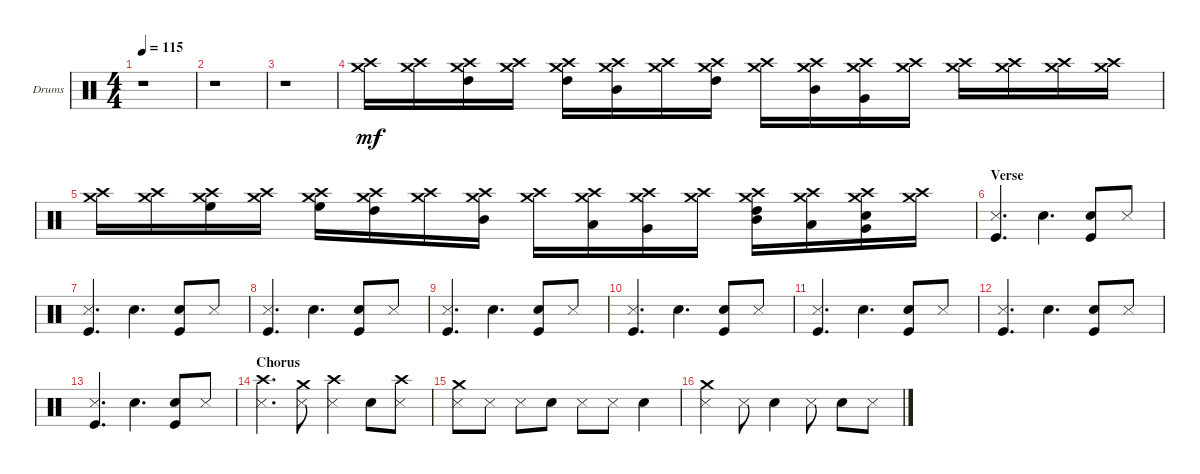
\defaultSystemsLayout 4
\bracketExtendMode groupsimilarinstruments
\firstSystemTrackNameOrientation horizontal
\otherSystemsTrackNameOrientation horizontal
\track ("Drumkit" "Drums") {instrument percussion}
\staff {score}
\articulation defaults
\ts (4 4)
\tempo 115
\clef neutral
\ks c
r.1{dy mf} |
r.1 |
r.1 |
("Crash high (hit)" "Crash medium (hit)").16 ("Crash medium (hit)" "Crash high (hit)").16 ("Crash high (hit)" "High Tom (hit)" "Crash medium (hit)").16 ("Crash medium (hit)" "Crash high (hit)").16 ("Crash high (hit)" "High Tom (hit)" "Crash medium (hit)").16 ("Crash medium (hit)" "Mid Tom (hit)" "Crash high (hit)").16 ("Crash high (hit)" "Crash medium (hit)").16 ("Crash medium (hit)" "High Tom (hit)" "Crash high (hit)").16 ("Crash high (hit)" "Crash medium (hit)").16 ("Crash medium (hit)" "Mid Tom (hit)" "Crash high (hit)").16 ("Crash high (hit)" "Very Low Tom (hit)" "Crash medium (hit)").16 ("Crash medium (hit)" "Crash high (hit)").16 ("Crash high (hit)" "Crash medium (hit)").16 ("Crash medium (hit)" "Crash high (hit)").16 ("Crash high (hit)" "Crash medium (hit)").16 ("Crash medium (hit)" "Crash high (hit)").16 |
("Crash high (hit)" "Crash medium (hit)").16 ("Crash medium (hit)" "Crash high (hit)").16 ("Crash high (hit)" "High Floor Tom (hit)" "Crash medium (hit)").16 ("Crash medium (hit)" "Crash high (hit)").16 ("Crash high (hit)" "High Floor Tom (hit)" "Crash medium (hit)").16 ("Crash medium (hit)" "High Tom (hit)" "Crash high (hit)").16 ("Crash high (hit)" "Crash medium (hit)").16 ("Crash medium (hit)" "Mid Tom (hit)" "Crash high (hit)").16 ("Crash high (hit)" "Crash medium (hit)").16 ("Crash medium (hit)" "Low Tom (hit)" "Crash high (hit)").16 ("Crash high (hit)" "Very Low Tom (hit)" "Crash medium (hit)").16 ("Crash medium (hit)" "Crash high (hit)").16 ("Crash high (hit)" "High Tom (hit)" "Crash medium (hit)" "Mid Tom (hit)").16 ("Crash medium (hit)" "Crash high (hit)" "Low Tom (hit)").16 ("Crash high (hit)" "Snare (hit) 2" "Very Low Tom (hit)" "Crash medium (hit)").16 ("Crash medium (hit)" "Crash high (hit)").16 |
\section ("" "Verse")
("Snare (side stick) 3" "Kick (hit)").4{d} "Snare (hit) 2".4{d} ("Snare (hit) 2" "Kick (hit)").8 "Snare (side stick) 3".8 |
("Snare (side stick) 3" "Kick (hit)").4{d} "Snare (hit) 2".4{d} ("Snare (hit) 2" "Kick (hit)").8 "Snare (side stick) 3".8 |
("Snare (side stick) 3" "Kick (hit)").4{d} "Snare (hit) 2".4{d} ("Snare (hit) 2" "Kick (hit)").8 "Snare (side stick) 3".8 |
("Snare (side stick) 3" "Kick (hit)").4{d} "Snare (hit) 2".4{d} ("Snare (hit) 2" "Kick (hit)").8 "Snare (side stick) 3".8 |
("Snare (side stick) 3" "Kick (hit)").4{d} "Snare (hit) 2".4{d} ("Snare (hit) 2" "Kick (hit)").8 "Snare (side stick) 3".8 |
("Snare (side stick) 3" "Kick (hit)").4{d} "Snare (hit) 2".4{d} ("Snare (hit) 2" "Kick (hit)").8 "Snare (side stick) 3".8 |
("Snare (side stick) 3" "Kick (hit)").4{d} "Snare (hit) 2".4{d} ("Snare (hit) 2" "Kick (hit)").8 "Snare (side stick) 3".8 |
("Snare (side stick) 3" "Kick (hit)").4{d} "Snare (hit) 2".4{d} ("Snare (hit) 2" "Kick (hit)").8 "Snare (side stick) 3".8 |
\section ("" "Chorus")
("Crash high (hit)" "Snare (side stick) 3").4{d} ("Crash medium (hit)" "Snare (side stick) 3").8 ("Crash high (hit)" "Snare (side stick) 3").4 "Snare (hit) 2".8 ("Crash high (hit)" "Snare (side stick) 3").8 |
("Crash medium (hit)" "Snare (side stick) 3").8 "Snare (side stick) 3".8 "Snare (side stick) 3".8 "Snare (hit) 2".8 "Snare (side stick) 3".8 "Snare (side stick) 3".8 "Snare (hit) 2".4 |
("Crash medium (hit)" "Snare (side stick) 3").4 "Snare (side stick) 3".8 "Snare (hit) 2".4 "Snare (side stick) 3".8 "Snare (hit) 2".8 "Snare (side stick) 3".8
